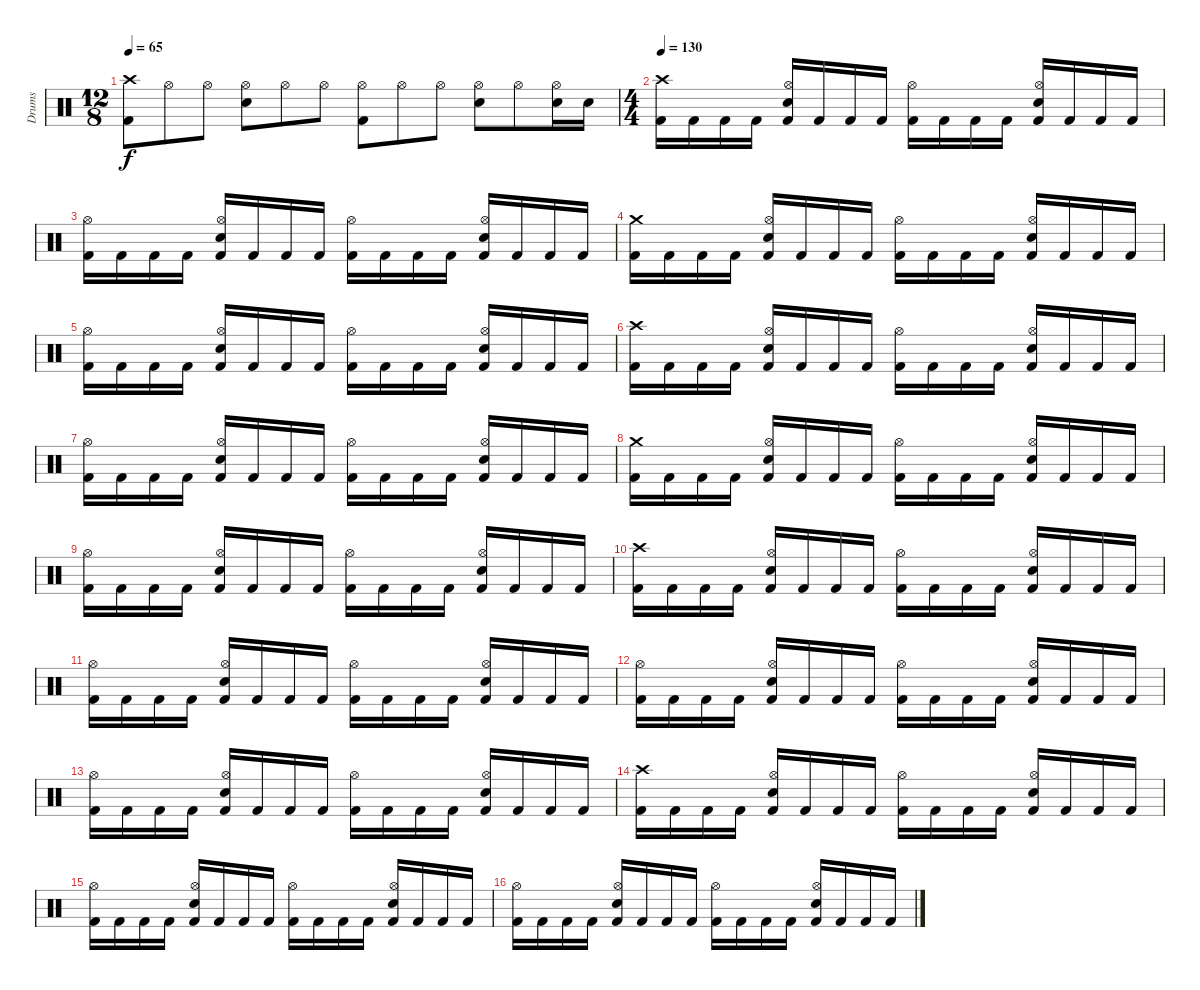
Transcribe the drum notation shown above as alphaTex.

\track ("Drums" "Drums") {instrument percussion}
\staff {score}
\articulation defaults
\ts (12 8)
\tempo 65
\clef neutral
\ks c
("Crash high (hit)" "Kick (hit) 2").8{dy f} "Hi-Hat (open)".8 "Hi-Hat (open)".8 ("Hi-Hat (open)" "Electric Snare (hit)").8 "Hi-Hat (open)".8 "Hi-Hat (open)".8 ("Hi-Hat (open)" "Kick (hit) 2").8 "Hi-Hat (open)".8 "Hi-Hat (open)".8 ("Hi-Hat (open)" "Electric Snare (hit)").8 "Hi-Hat (open)".8 ("Hi-Hat (open)" "Electric Snare (hit)").16 "Electric Snare (hit)".16 |
\ts (4 4)
\tempo 130
("Crash high (hit)" "Kick (hit) 2").16 "Kick (hit) 2".16 "Kick (hit) 2".16 "Kick (hit) 2".16 ("Hi-Hat (open)" "Electric Snare (hit)" "Kick (hit) 2").16 "Kick (hit) 2".16 "Kick (hit) 2".16 "Kick (hit) 2".16 ("Hi-Hat (open)" "Kick (hit) 2").16 "Kick (hit) 2".16 "Kick (hit) 2".16 "Kick (hit) 2".16 ("Hi-Hat (open)" "Electric Snare (hit)" "Kick (hit) 2").16 "Kick (hit) 2".16 "Kick (hit) 2".16 "Kick (hit) 2".16 |
("Hi-Hat (open)" "Kick (hit) 2").16 "Kick (hit) 2".16 "Kick (hit) 2".16 "Kick (hit) 2".16 ("Hi-Hat (open)" "Electric Snare (hit)" "Kick (hit) 2").16 "Kick (hit) 2".16 "Kick (hit) 2".16 "Kick (hit) 2".16 ("Hi-Hat (open)" "Kick (hit) 2").16 "Kick (hit) 2".16 "Kick (hit) 2".16 "Kick (hit) 2".16 ("Hi-Hat (open)" "Electric Snare (hit)" "Kick (hit) 2").16 "Kick (hit) 2".16 "Kick (hit) 2".16 "Kick (hit) 2".16 |
("Crash medium (hit)" "Kick (hit) 2").16 "Kick (hit) 2".16 "Kick (hit) 2".16 "Kick (hit) 2".16 ("Hi-Hat (open)" "Electric Snare (hit)" "Kick (hit) 2").16 "Kick (hit) 2".16 "Kick (hit) 2".16 "Kick (hit) 2".16 ("Hi-Hat (open)" "Kick (hit) 2").16 "Kick (hit) 2".16 "Kick (hit) 2".16 "Kick (hit) 2".16 ("Hi-Hat (open)" "Electric Snare (hit)" "Kick (hit) 2").16 "Kick (hit) 2".16 "Kick (hit) 2".16 "Kick (hit) 2".16 |
("Hi-Hat (open)" "Kick (hit) 2").16 "Kick (hit) 2".16 "Kick (hit) 2".16 "Kick (hit) 2".16 ("Hi-Hat (open)" "Electric Snare (hit)" "Kick (hit) 2").16 "Kick (hit) 2".16 "Kick (hit) 2".16 "Kick (hit) 2".16 ("Hi-Hat (open)" "Kick (hit) 2").16 "Kick (hit) 2".16 "Kick (hit) 2".16 "Kick (hit) 2".16 ("Hi-Hat (open)" "Electric Snare (hit)" "Kick (hit) 2").16 "Kick (hit) 2".16 "Kick (hit) 2".16 "Kick (hit) 2".16 |
("Crash high (hit)" "Kick (hit) 2").16 "Kick (hit) 2".16 "Kick (hit) 2".16 "Kick (hit) 2".16 ("Hi-Hat (open)" "Electric Snare (hit)" "Kick (hit) 2").16 "Kick (hit) 2".16 "Kick (hit) 2".16 "Kick (hit) 2".16 ("Hi-Hat (open)" "Kick (hit) 2").16 "Kick (hit) 2".16 "Kick (hit) 2".16 "Kick (hit) 2".16 ("Hi-Hat (open)" "Electric Snare (hit)" "Kick (hit) 2").16 "Kick (hit) 2".16 "Kick (hit) 2".16 "Kick (hit) 2".16 |
("Hi-Hat (open)" "Kick (hit) 2").16 "Kick (hit) 2".16 "Kick (hit) 2".16 "Kick (hit) 2".16 ("Hi-Hat (open)" "Electric Snare (hit)" "Kick (hit) 2").16 "Kick (hit) 2".16 "Kick (hit) 2".16 "Kick (hit) 2".16 ("Hi-Hat (open)" "Kick (hit) 2").16 "Kick (hit) 2".16 "Kick (hit) 2".16 "Kick (hit) 2".16 ("Hi-Hat (open)" "Electric Snare (hit)" "Kick (hit) 2").16 "Kick (hit) 2".16 "Kick (hit) 2".16 "Kick (hit) 2".16 |
("Crash medium (hit)" "Kick (hit) 2").16 "Kick (hit) 2".16 "Kick (hit) 2".16 "Kick (hit) 2".16 ("Hi-Hat (open)" "Electric Snare (hit)" "Kick (hit) 2").16 "Kick (hit) 2".16 "Kick (hit) 2".16 "Kick (hit) 2".16 ("Hi-Hat (open)" "Kick (hit) 2").16 "Kick (hit) 2".16 "Kick (hit) 2".16 "Kick (hit) 2".16 ("Hi-Hat (open)" "Electric Snare (hit)" "Kick (hit) 2").16 "Kick (hit) 2".16 "Kick (hit) 2".16 "Kick (hit) 2".16 |
("Hi-Hat (open)" "Kick (hit) 2").16 "Kick (hit) 2".16 "Kick (hit) 2".16 "Kick (hit) 2".16 ("Hi-Hat (open)" "Electric Snare (hit)" "Kick (hit) 2").16 "Kick (hit) 2".16 "Kick (hit) 2".16 "Kick (hit) 2".16 ("Hi-Hat (open)" "Kick (hit) 2").16 "Kick (hit) 2".16 "Kick (hit) 2".16 "Kick (hit) 2".16 ("Hi-Hat (open)" "Electric Snare (hit)" "Kick (hit) 2").16 "Kick (hit) 2".16 "Kick (hit) 2".16 "Kick (hit) 2".16 |
("Crash high (hit)" "Kick (hit) 2").16 "Kick (hit) 2".16 "Kick (hit) 2".16 "Kick (hit) 2".16 ("Hi-Hat (open)" "Electric Snare (hit)" "Kick (hit) 2").16 "Kick (hit) 2".16 "Kick (hit) 2".16 "Kick (hit) 2".16 ("Hi-Hat (open)" "Kick (hit) 2").16 "Kick (hit) 2".16 "Kick (hit) 2".16 "Kick (hit) 2".16 ("Hi-Hat (open)" "Electric Snare (hit)" "Kick (hit) 2").16 "Kick (hit) 2".16 "Kick (hit) 2".16 "Kick (hit) 2".16 |
("Hi-Hat (open)" "Kick (hit) 2").16 "Kick (hit) 2".16 "Kick (hit) 2".16 "Kick (hit) 2".16 ("Hi-Hat (open)" "Electric Snare (hit)" "Kick (hit) 2").16 "Kick (hit) 2".16 "Kick (hit) 2".16 "Kick (hit) 2".16 ("Hi-Hat (open)" "Kick (hit) 2").16 "Kick (hit) 2".16 "Kick (hit) 2".16 "Kick (hit) 2".16 ("Hi-Hat (open)" "Electric Snare (hit)" "Kick (hit) 2").16 "Kick (hit) 2".16 "Kick (hit) 2".16 "Kick (hit) 2".16 |
("Hi-Hat (open)" "Kick (hit) 2").16 "Kick (hit) 2".16 "Kick (hit) 2".16 "Kick (hit) 2".16 ("Hi-Hat (open)" "Electric Snare (hit)" "Kick (hit) 2").16 "Kick (hit) 2".16 "Kick (hit) 2".16 "Kick (hit) 2".16 ("Hi-Hat (open)" "Kick (hit) 2").16 "Kick (hit) 2".16 "Kick (hit) 2".16 "Kick (hit) 2".16 ("Hi-Hat (open)" "Electric Snare (hit)" "Kick (hit) 2").16 "Kick (hit) 2".16 "Kick (hit) 2".16 "Kick (hit) 2".16 |
("Hi-Hat (open)" "Kick (hit) 2").16 "Kick (hit) 2".16 "Kick (hit) 2".16 "Kick (hit) 2".16 ("Hi-Hat (open)" "Electric Snare (hit)" "Kick (hit) 2").16 "Kick (hit) 2".16 "Kick (hit) 2".16 "Kick (hit) 2".16 ("Hi-Hat (open)" "Kick (hit) 2").16 "Kick (hit) 2".16 "Kick (hit) 2".16 "Kick (hit) 2".16 ("Hi-Hat (open)" "Electric Snare (hit)" "Kick (hit) 2").16 "Kick (hit) 2".16 "Kick (hit) 2".16 "Kick (hit) 2".16 |
("Crash high (hit)" "Kick (hit) 2").16 "Kick (hit) 2".16 "Kick (hit) 2".16 "Kick (hit) 2".16 ("Hi-Hat (open)" "Electric Snare (hit)" "Kick (hit) 2").16 "Kick (hit) 2".16 "Kick (hit) 2".16 "Kick (hit) 2".16 ("Hi-Hat (open)" "Kick (hit) 2").16 "Kick (hit) 2".16 "Kick (hit) 2".16 "Kick (hit) 2".16 ("Hi-Hat (open)" "Electric Snare (hit)" "Kick (hit) 2").16 "Kick (hit) 2".16 "Kick (hit) 2".16 "Kick (hit) 2".16 |
("Hi-Hat (open)" "Kick (hit) 2").16 "Kick (hit) 2".16 "Kick (hit) 2".16 "Kick (hit) 2".16 ("Hi-Hat (open)" "Electric Snare (hit)" "Kick (hit) 2").16 "Kick (hit) 2".16 "Kick (hit) 2".16 "Kick (hit) 2".16 ("Hi-Hat (open)" "Kick (hit) 2").16 "Kick (hit) 2".16 "Kick (hit) 2".16 "Kick (hit) 2".16 ("Hi-Hat (open)" "Electric Snare (hit)" "Kick (hit) 2").16 "Kick (hit) 2".16 "Kick (hit) 2".16 "Kick (hit) 2".16 |
("Hi-Hat (open)" "Kick (hit) 2").16 "Kick (hit) 2".16 "Kick (hit) 2".16 "Kick (hit) 2".16 ("Hi-Hat (open)" "Electric Snare (hit)" "Kick (hit) 2").16 "Kick (hit) 2".16 "Kick (hit) 2".16 "Kick (hit) 2".16 ("Hi-Hat (open)" "Kick (hit) 2").16 "Kick (hit) 2".16 "Kick (hit) 2".16 "Kick (hit) 2".16 ("Hi-Hat (open)" "Electric Snare (hit)" "Kick (hit) 2").16 "Kick (hit) 2".16 "Kick (hit) 2".16 "Kick (hit) 2".16
